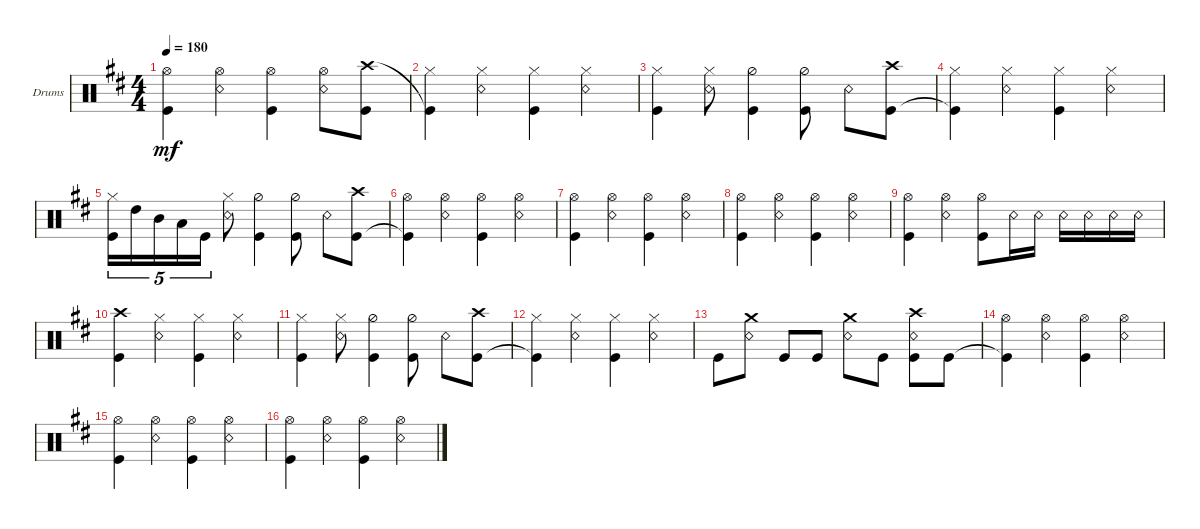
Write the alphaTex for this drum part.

\defaultSystemsLayout 4
\bracketExtendMode groupsimilarinstruments
\firstSystemTrackNameOrientation horizontal
\otherSystemsTrackNameOrientation horizontal
\track ("Drumkit" "Drums") {instrument percussion}
\staff {score}
\articulation defaults
\ts (4 4)
\tempo 180
\clef neutral
\ks bminor
("Kick (hit)" "Hi-Hat (open)").4{dy mf} ("Hi-Hat (open)" "Snare (rim shot)").4 ("Hi-Hat (open)" "Kick (hit)").4 ("Hi-Hat (open)" "Snare (rim shot)").8 ("Crash high (hit)" "Kick (hit)").8 |
("Kick (hit)"{t} "Hi-Hat (closed)").4 ("Hi-Hat (closed)" "Snare (rim shot)").4 ("Hi-Hat (closed)" "Kick (hit)").4 ("Hi-Hat (closed)" "Snare (rim shot)").4 |
("Kick (hit)" "Hi-Hat (closed)").4 ("Hi-Hat (closed)" "Snare (rim shot)").8 ("Kick (hit)" "Hi-Hat (half)").4 ("Hi-Hat (half)" "Kick (hit)").8 "Snare (rim shot)".8 ("Kick (hit)" "Crash high (hit)").8 |
("Kick (hit)"{t} "Hi-Hat (closed)").4 ("Hi-Hat (closed)" "Snare (rim shot)").4 ("Hi-Hat (closed)" "Kick (hit)").4 ("Hi-Hat (closed)" "Snare (rim shot)").4 |
("Kick (hit)" "Hi-Hat (closed)").16{tu (5 4)} "High Tom (hit)".16{tu (5 4)} "Mid Tom (hit)".16{tu (5 4)} "Low Tom (hit)".16{tu (5 4)} "Kick (hit)".16{tu (5 4)} ("Hi-Hat (closed)" "Snare (rim shot)").8 ("Kick (hit)" "Hi-Hat (half)").4 ("Hi-Hat (half)" "Kick (hit)").8 "Snare (rim shot)".8 ("Kick (hit)" "Crash high (hit)").8 |
("Kick (hit)"{t} "Hi-Hat (open)").4 ("Hi-Hat (open)" "Snare (rim shot)").4 ("Hi-Hat (open)" "Kick (hit)").4 ("Hi-Hat (open)" "Snare (rim shot)").4 |
("Kick (hit)" "Hi-Hat (open)").4 ("Hi-Hat (open)" "Snare (rim shot)").4 ("Hi-Hat (open)" "Kick (hit)").4 ("Hi-Hat (open)" "Snare (rim shot)").4 |
("Kick (hit)" "Hi-Hat (open)").4 ("Hi-Hat (open)" "Snare (rim shot)").4 ("Hi-Hat (open)" "Kick (hit)").4 ("Hi-Hat (open)" "Snare (rim shot)").4 |
("Kick (hit)" "Hi-Hat (open)").4 ("Hi-Hat (open)" "Snare (rim shot)").4 ("Hi-Hat (open)" "Kick (hit)").8 "Snare (rim shot)".16 "Snare (rim shot)".16 "Snare (rim shot)".16 "Snare (rim shot)".16 "Snare (rim shot)".16 "Snare (rim shot)".16 |
("Kick (hit)" "Crash high (hit)").4 ("Hi-Hat (closed)" "Snare (rim shot)").4 ("Hi-Hat (closed)" "Kick (hit)").4 ("Hi-Hat (closed)" "Snare (rim shot)").4 |
("Kick (hit)" "Hi-Hat (closed)").4 ("Hi-Hat (closed)" "Snare (rim shot)").8 ("Kick (hit)" "Hi-Hat (half)").4 ("Hi-Hat (half)" "Kick (hit)").8 "Snare (rim shot)".8 ("Kick (hit)" "Crash high (hit)").8 |
("Kick (hit)"{t} "Hi-Hat (closed)").4 ("Hi-Hat (closed)" "Snare (rim shot)").4 ("Hi-Hat (closed)" "Kick (hit)").4 ("Hi-Hat (closed)" "Snare (rim shot)").4 |
"Kick (hit)".8 ("Snare (rim shot)" "Crash medium (hit)").8 "Kick (hit)".8 "Kick (hit)".8 ("Snare (rim shot)" "Crash medium (hit)").8 "Kick (hit)".8 ("Crash high (hit)" "Snare (rim shot)" "Kick (hit)").8 "Kick (hit)".8 |
("Kick (hit)"{t} "Hi-Hat (open)").4 ("Hi-Hat (open)" "Snare (rim shot)").4 ("Hi-Hat (open)" "Kick (hit)").4 ("Hi-Hat (open)" "Snare (rim shot)").4 |
("Kick (hit)" "Hi-Hat (open)").4 ("Hi-Hat (open)" "Snare (rim shot)").4 ("Hi-Hat (open)" "Kick (hit)").4 ("Hi-Hat (open)" "Snare (rim shot)").4 |
("Kick (hit)" "Hi-Hat (open)").4 ("Hi-Hat (open)" "Snare (rim shot)").4 ("Hi-Hat (open)" "Kick (hit)").4 ("Hi-Hat (open)" "Snare (rim shot)").4
